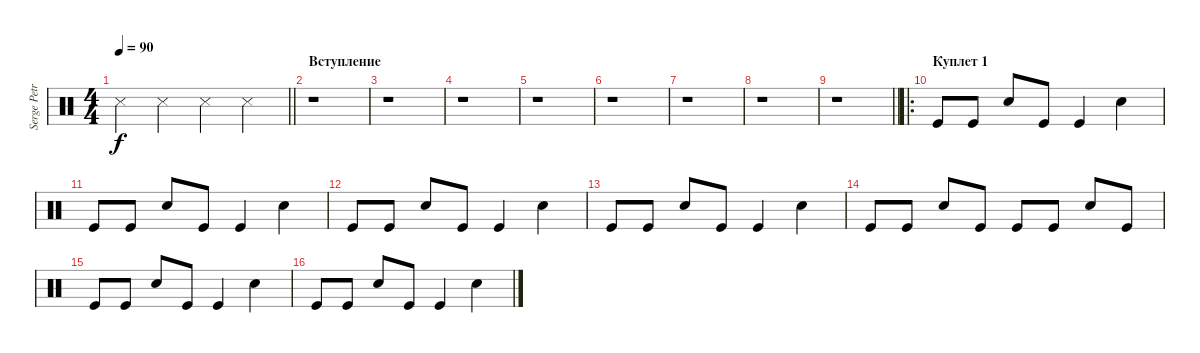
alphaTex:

\track ("Serge Petrone" "Serge Petr") {instrument percussion}
\staff {score}
\articulation defaults
\ts (4 4)
\tempo 90
\clef neutral
\barLineRight lightlight
\ks c "Snare (side stick) 3".4{dy f} "Snare (side stick) 3".4 "Snare (side stick) 3".4 "Snare (side stick) 3".4
|
\section ("" "Вcтупление")
r.1 |
r.1 |
r.1 |
r.1 |
r.1 |
r.1 |
r.1 |
\barLineRight lightlight
r.1 |
\ro
\section ("" "Куплет 1")
"Kick (hit)".8 "Kick (hit)".8 "Snare (hit) 2".8 "Kick (hit)".8 "Kick (hit)".4 "Snare (hit) 2".4 |
"Kick (hit)".8 "Kick (hit)".8 "Snare (hit) 2".8 "Kick (hit)".8 "Kick (hit)".4 "Snare (hit) 2".4 |
"Kick (hit)".8 "Kick (hit)".8 "Snare (hit) 2".8 "Kick (hit)".8 "Kick (hit)".4 "Snare (hit) 2".4 |
"Kick (hit)".8 "Kick (hit)".8 "Snare (hit) 2".8 "Kick (hit)".8 "Kick (hit)".4 "Snare (hit) 2".4 |
"Kick (hit)".8 "Kick (hit)".8 "Snare (hit) 2".8 "Kick (hit)".8 "Kick (hit)".8 "Kick (hit)".8 "Snare (hit) 2".8 "Kick (hit)".8 |
"Kick (hit)".8 "Kick (hit)".8 "Snare (hit) 2".8 "Kick (hit)".8 "Kick (hit)".4 "Snare (hit) 2".4 |
"Kick (hit)".8 "Kick (hit)".8 "Snare (hit) 2".8 "Kick (hit)".8 "Kick (hit)".4 "Snare (hit) 2".4
